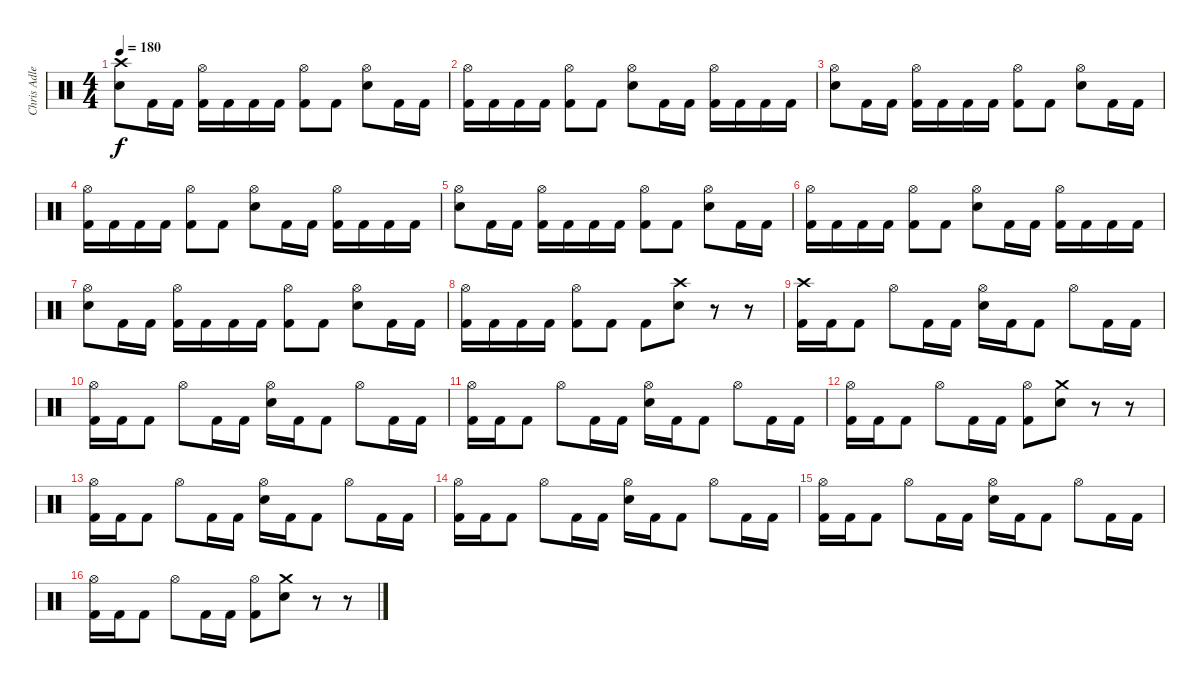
\track ("Chris Adler" "Chris Adle") {instrument percussion}
\staff {score}
\articulation defaults
\ts (4 4)
\tempo 180
\clef neutral
\ks c
("Crash high (hit)" "Electric Snare (hit)").8{dy f} "Kick (hit) 2".16 "Kick (hit) 2".16 ("Hi-Hat (open)" "Kick (hit) 2").16 "Kick (hit) 2".16 "Kick (hit) 2".16 "Kick (hit) 2".16 ("Hi-Hat (open)" "Kick (hit) 2").8 "Kick (hit) 2".8 ("Hi-Hat (open)" "Electric Snare (hit)").8 "Kick (hit) 2".16 "Kick (hit) 2".16 |
("Hi-Hat (open)" "Kick (hit) 2").16 "Kick (hit) 2".16 "Kick (hit) 2".16 "Kick (hit) 2".16 ("Hi-Hat (open)" "Kick (hit) 2").8 "Kick (hit) 2".8 ("Hi-Hat (open)" "Electric Snare (hit)").8 "Kick (hit) 2".16 "Kick (hit) 2".16 ("Hi-Hat (open)" "Kick (hit) 2").16 "Kick (hit) 2".16 "Kick (hit) 2".16 "Kick (hit) 2".16 |
("Hi-Hat (open)" "Electric Snare (hit)").8 "Kick (hit) 2".16 "Kick (hit) 2".16 ("Hi-Hat (open)" "Kick (hit) 2").16 "Kick (hit) 2".16 "Kick (hit) 2".16 "Kick (hit) 2".16 ("Hi-Hat (open)" "Kick (hit) 2").8 "Kick (hit) 2".8 ("Hi-Hat (open)" "Electric Snare (hit)").8 "Kick (hit) 2".16 "Kick (hit) 2".16 |
("Hi-Hat (open)" "Kick (hit) 2").16 "Kick (hit) 2".16 "Kick (hit) 2".16 "Kick (hit) 2".16 ("Hi-Hat (open)" "Kick (hit) 2").8 "Kick (hit) 2".8 ("Hi-Hat (open)" "Electric Snare (hit)").8 "Kick (hit) 2".16 "Kick (hit) 2".16 ("Hi-Hat (open)" "Kick (hit) 2").16 "Kick (hit) 2".16 "Kick (hit) 2".16 "Kick (hit) 2".16 |
("Hi-Hat (open)" "Electric Snare (hit)").8 "Kick (hit) 2".16 "Kick (hit) 2".16 ("Hi-Hat (open)" "Kick (hit) 2").16 "Kick (hit) 2".16 "Kick (hit) 2".16 "Kick (hit) 2".16 ("Hi-Hat (open)" "Kick (hit) 2").8 "Kick (hit) 2".8 ("Hi-Hat (open)" "Electric Snare (hit)").8 "Kick (hit) 2".16 "Kick (hit) 2".16 |
("Hi-Hat (open)" "Kick (hit) 2").16 "Kick (hit) 2".16 "Kick (hit) 2".16 "Kick (hit) 2".16 ("Hi-Hat (open)" "Kick (hit) 2").8 "Kick (hit) 2".8 ("Hi-Hat (open)" "Electric Snare (hit)").8 "Kick (hit) 2".16 "Kick (hit) 2".16 ("Hi-Hat (open)" "Kick (hit) 2").16 "Kick (hit) 2".16 "Kick (hit) 2".16 "Kick (hit) 2".16 |
("Hi-Hat (open)" "Electric Snare (hit)").8 "Kick (hit) 2".16 "Kick (hit) 2".16 ("Hi-Hat (open)" "Kick (hit) 2").16 "Kick (hit) 2".16 "Kick (hit) 2".16 "Kick (hit) 2".16 ("Hi-Hat (open)" "Kick (hit) 2").8 "Kick (hit) 2".8 ("Hi-Hat (open)" "Electric Snare (hit)").8 "Kick (hit) 2".16 "Kick (hit) 2".16 |
("Hi-Hat (open)" "Kick (hit) 2").16 "Kick (hit) 2".16 "Kick (hit) 2".16 "Kick (hit) 2".16 ("Hi-Hat (open)" "Kick (hit) 2").8 "Kick (hit) 2".8 "Kick (hit) 2".8 ("Crash high (hit)" "Electric Snare (hit)").8 r.8 r.8 |
("Crash high (hit)" "Kick (hit) 2").16 "Kick (hit) 2".16 "Kick (hit) 2".8 "Hi-Hat (open)".8 "Kick (hit) 2".16 "Kick (hit) 2".16 ("Hi-Hat (open)" "Electric Snare (hit)").16 "Kick (hit) 2".16 "Kick (hit) 2".8 "Hi-Hat (open)".8 "Kick (hit) 2".16 "Kick (hit) 2".16 |
("Hi-Hat (open)" "Kick (hit) 2").16 "Kick (hit) 2".16 "Kick (hit) 2".8 "Hi-Hat (open)".8 "Kick (hit) 2".16 "Kick (hit) 2".16 ("Hi-Hat (open)" "Electric Snare (hit)").16 "Kick (hit) 2".16 "Kick (hit) 2".8 "Hi-Hat (open)".8 "Kick (hit) 2".16 "Kick (hit) 2".16 |
("Hi-Hat (open)" "Kick (hit) 2").16 "Kick (hit) 2".16 "Kick (hit) 2".8 "Hi-Hat (open)".8 "Kick (hit) 2".16 "Kick (hit) 2".16 ("Hi-Hat (open)" "Electric Snare (hit)").16 "Kick (hit) 2".16 "Kick (hit) 2".8 "Hi-Hat (open)".8 "Kick (hit) 2".16 "Kick (hit) 2".16 |
("Hi-Hat (open)" "Kick (hit) 2").16 "Kick (hit) 2".16 "Kick (hit) 2".8 "Hi-Hat (open)".8 "Kick (hit) 2".16 "Kick (hit) 2".16 ("Hi-Hat (open)" "Kick (hit) 2").8 ("Crash medium (hit)" "Electric Snare (hit)").8 r.8 r.8 |
("Hi-Hat (open)" "Kick (hit) 2").16 "Kick (hit) 2".16 "Kick (hit) 2".8 "Hi-Hat (open)".8 "Kick (hit) 2".16 "Kick (hit) 2".16 ("Hi-Hat (open)" "Electric Snare (hit)").16 "Kick (hit) 2".16 "Kick (hit) 2".8 "Hi-Hat (open)".8 "Kick (hit) 2".16 "Kick (hit) 2".16 |
("Hi-Hat (open)" "Kick (hit) 2").16 "Kick (hit) 2".16 "Kick (hit) 2".8 "Hi-Hat (open)".8 "Kick (hit) 2".16 "Kick (hit) 2".16 ("Hi-Hat (open)" "Electric Snare (hit)").16 "Kick (hit) 2".16 "Kick (hit) 2".8 "Hi-Hat (open)".8 "Kick (hit) 2".16 "Kick (hit) 2".16 |
("Hi-Hat (open)" "Kick (hit) 2").16 "Kick (hit) 2".16 "Kick (hit) 2".8 "Hi-Hat (open)".8 "Kick (hit) 2".16 "Kick (hit) 2".16 ("Hi-Hat (open)" "Electric Snare (hit)").16 "Kick (hit) 2".16 "Kick (hit) 2".8 "Hi-Hat (open)".8 "Kick (hit) 2".16 "Kick (hit) 2".16 |
("Hi-Hat (open)" "Kick (hit) 2").16 "Kick (hit) 2".16 "Kick (hit) 2".8 "Hi-Hat (open)".8 "Kick (hit) 2".16 "Kick (hit) 2".16 ("Hi-Hat (open)" "Kick (hit) 2").8 ("Crash medium (hit)" "Electric Snare (hit)").8 r.8 r.8
